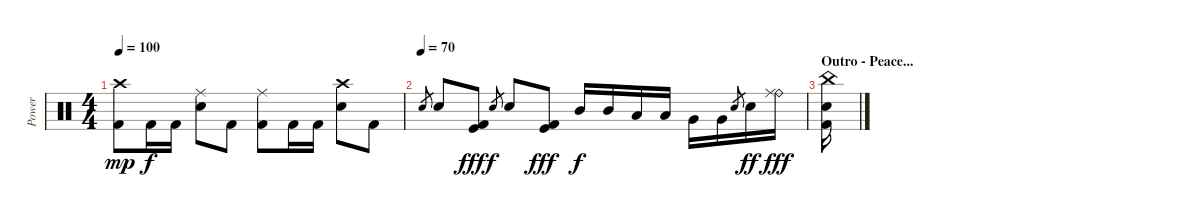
\track ("Power" "Power") {instrument percussion}
\staff {score}
\articulation defaults
\ts (4 4)
\tempo 100
\clef neutral
\ks c
("Crash high (hit)" "Kick (hit) 2").8{dy mp} "Kick (hit) 2".16{dy f} "Kick (hit) 2".16 ("Ride (middle)" "Electric Snare (hit)").8 "Kick (hit) 2".8 ("Ride (middle)" "Kick (hit) 2").8 "Kick (hit) 2".16 "Kick (hit) 2".16 ("Crash high (hit)" "Electric Snare (hit)").8 "Kick (hit) 2".8 |
\tempo (70)
"Electric Snare (hit)".8{gr} "Electric Snare (hit)".8 ("Kick (hit)" "Kick (hit) 2").8{dy fff} "Electric Snare (hit)".8{gr dy f} "Electric Snare (hit)".8 ("Kick (hit)" "Kick (hit) 2").8{dy fff} "Mid Tom (hit)".16{dy f} "Mid Tom (hit)".16 "Low Tom (hit)".16 "Low Tom (hit)".16 "Very Low Tom (hit)".16 "Very Low Tom (hit)".16 "Electric Snare (hit)".8{gr} "Electric Snare (hit)".16{dy ff} ("Ride (bell)" "Ride (middle)").16{dy fff} |
\section ("" "Outro - Peace...")
("Kick (hit) 2" "China (hit)" "Electric Snare (hit)").16
